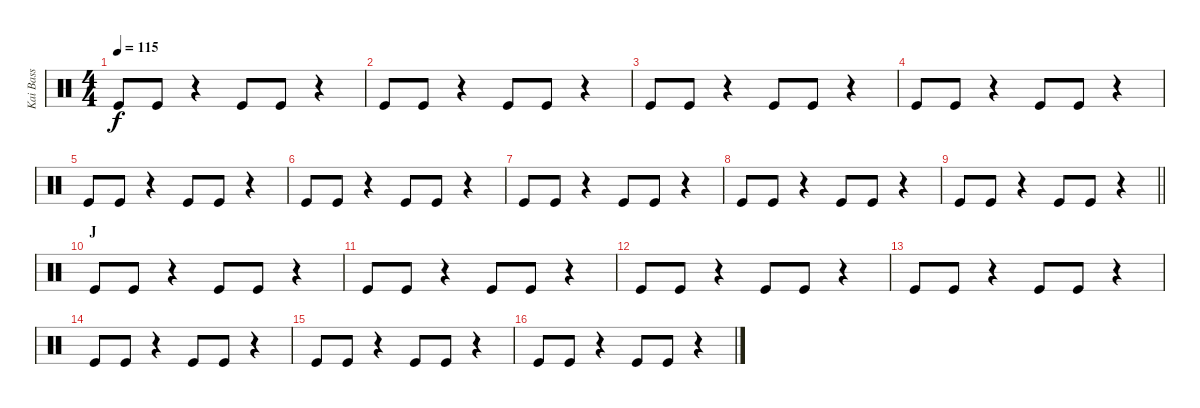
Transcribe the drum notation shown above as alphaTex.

\track ("Kai Bass" "Kai Bass") {instrument percussion}
\staff {score}
\articulation defaults
\ts (4 4)
\tempo 115
\clef neutral
\ks c "Kick (hit)".8{dy f} "Kick (hit)".8
r.4 "Kick (hit)".8 "Kick (hit)".8 r.4 |
"Kick (hit)".8 "Kick (hit)".8 r.4 "Kick (hit)".8 "Kick (hit)".8 r.4 |
"Kick (hit)".8 "Kick (hit)".8 r.4 "Kick (hit)".8 "Kick (hit)".8 r.4 |
"Kick (hit)".8 "Kick (hit)".8 r.4 "Kick (hit)".8 "Kick (hit)".8 r.4 |
"Kick (hit)".8 "Kick (hit)".8 r.4 "Kick (hit)".8 "Kick (hit)".8 r.4 |
"Kick (hit)".8 "Kick (hit)".8 r.4 "Kick (hit)".8 "Kick (hit)".8 r.4 |
"Kick (hit)".8 "Kick (hit)".8 r.4 "Kick (hit)".8 "Kick (hit)".8 r.4 |
"Kick (hit)".8 "Kick (hit)".8 r.4 "Kick (hit)".8 "Kick (hit)".8 r.4 |
\barLineRight lightlight "Kick (hit)".8 "Kick (hit)".8
r.4 "Kick (hit)".8 "Kick (hit)".8 r.4 |
\section ("" "J")
"Kick (hit)".8 "Kick (hit)".8 r.4 "Kick (hit)".8 "Kick (hit)".8 r.4 |
"Kick (hit)".8 "Kick (hit)".8 r.4 "Kick (hit)".8 "Kick (hit)".8 r.4 |
"Kick (hit)".8 "Kick (hit)".8 r.4 "Kick (hit)".8 "Kick (hit)".8 r.4 |
"Kick (hit)".8 "Kick (hit)".8 r.4 "Kick (hit)".8 "Kick (hit)".8 r.4 |
"Kick (hit)".8 "Kick (hit)".8 r.4 "Kick (hit)".8 "Kick (hit)".8 r.4 |
"Kick (hit)".8 "Kick (hit)".8 r.4 "Kick (hit)".8 "Kick (hit)".8 r.4 |
"Kick (hit)".8 "Kick (hit)".8 r.4 "Kick (hit)".8 "Kick (hit)".8 r.4
